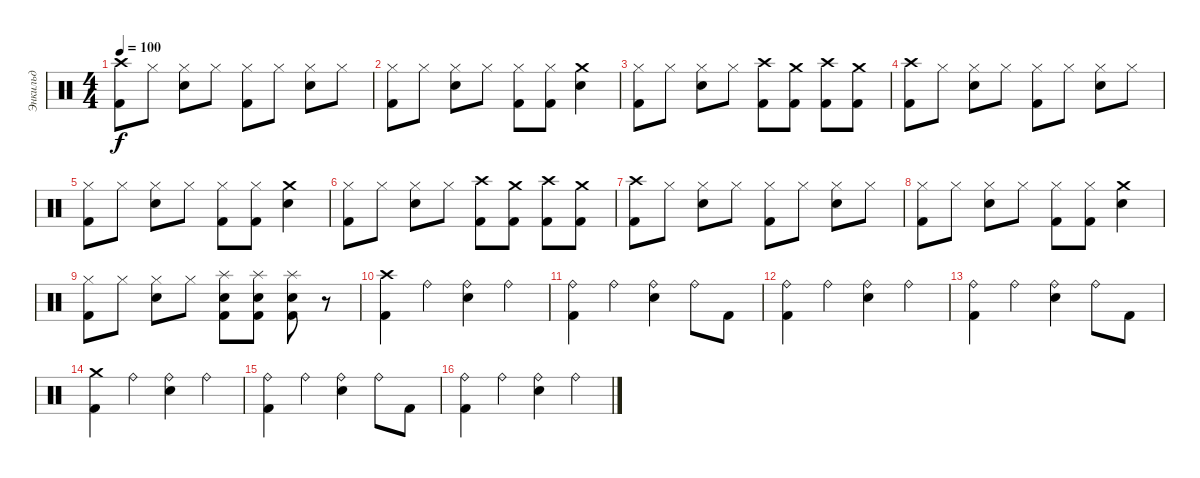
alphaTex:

\track ("Энкильд" "Энкильд") {instrument percussion}
\staff {score}
\articulation defaults
\ts (4 4)
\tempo 100
\clef neutral
\ks c
("Kick (hit) 2" "Crash high (hit)").8{dy f} "Hi-Hat (closed)".8 ("Snare (hit) 2" "Hi-Hat (closed)").8 "Hi-Hat (closed)".8 ("Kick (hit) 2" "Hi-Hat (closed)").8 "Hi-Hat (closed)".8 ("Snare (hit) 2" "Hi-Hat (closed)").8 "Hi-Hat (closed)".8 |
("Kick (hit) 2" "Hi-Hat (closed)").8 "Hi-Hat (closed)".8 ("Snare (hit) 2" "Hi-Hat (closed)").8 "Hi-Hat (closed)".8 ("Kick (hit) 2" "Hi-Hat (closed)").8 ("Kick (hit) 2" "Hi-Hat (closed)").8 ("Crash medium (hit)" "Snare (hit) 2").4 |
("Hi-Hat (closed)" "Kick (hit) 2").8 "Hi-Hat (closed)".8 ("Hi-Hat (closed)" "Snare (hit) 2").8 "Hi-Hat (closed)".8 ("Kick (hit) 2" "Crash high (hit)").8 ("Kick (hit) 2" "Crash medium (hit)").8 ("Kick (hit) 2" "Crash high (hit)").8 ("Kick (hit) 2" "Crash medium (hit)").8 |
("Kick (hit) 2" "Crash high (hit)").8 "Hi-Hat (closed)".8 ("Snare (hit) 2" "Hi-Hat (closed)").8 "Hi-Hat (closed)".8 ("Kick (hit) 2" "Hi-Hat (closed)").8 "Hi-Hat (closed)".8 ("Snare (hit) 2" "Hi-Hat (closed)").8 "Hi-Hat (closed)".8 |
("Kick (hit) 2" "Hi-Hat (closed)").8 "Hi-Hat (closed)".8 ("Snare (hit) 2" "Hi-Hat (closed)").8 "Hi-Hat (closed)".8 ("Kick (hit) 2" "Hi-Hat (closed)").8 ("Kick (hit) 2" "Hi-Hat (closed)").8 ("Crash medium (hit)" "Snare (hit) 2").4 |
("Hi-Hat (closed)" "Kick (hit) 2").8 "Hi-Hat (closed)".8 ("Hi-Hat (closed)" "Snare (hit) 2").8 "Hi-Hat (closed)".8 ("Kick (hit) 2" "Crash high (hit)").8 ("Kick (hit) 2" "Crash medium (hit)").8 ("Kick (hit) 2" "Crash high (hit)").8 ("Kick (hit) 2" "Crash medium (hit)").8 |
("Kick (hit) 2" "Crash high (hit)").8 "Hi-Hat (closed)".8 ("Snare (hit) 2" "Hi-Hat (closed)").8 "Hi-Hat (closed)".8 ("Kick (hit) 2" "Hi-Hat (closed)").8 "Hi-Hat (closed)".8 ("Snare (hit) 2" "Hi-Hat (closed)").8 "Hi-Hat (closed)".8 |
("Kick (hit) 2" "Hi-Hat (closed)").8 "Hi-Hat (closed)".8 ("Snare (hit) 2" "Hi-Hat (closed)").8 "Hi-Hat (closed)".8 ("Kick (hit) 2" "Hi-Hat (closed)").8 ("Kick (hit) 2" "Hi-Hat (closed)").8 ("Crash medium (hit)" "Snare (hit) 2").4 |
("Hi-Hat (closed)" "Kick (hit) 2").8 "Hi-Hat (closed)".8 ("Hi-Hat (closed)" "Snare (hit) 2").8 "Hi-Hat (closed)".8 ("Splash (hit)" "Kick (hit) 2" "Snare (hit) 2").8 ("Splash (hit)" "Kick (hit) 2" "Snare (hit) 2").8 ("Splash (hit)" "Kick (hit) 2" "Snare (hit) 2").8 r.8 |
("Kick (hit) 2" "Crash high (hit)").4 "Ride (bell)".4 ("Snare (hit) 2" "Ride (bell)").4 "Ride (bell)".4 |
("Ride (bell)" "Kick (hit) 2").4 "Ride (bell)".4 ("Ride (bell)" "Snare (hit) 2").4 "Ride (bell)".8 "Kick (hit) 2".8 |
("Ride (bell)" "Kick (hit) 2").4 "Ride (bell)".4 ("Snare (hit) 2" "Ride (bell)").4 "Ride (bell)".4 |
("Ride (bell)" "Kick (hit) 2").4 "Ride (bell)".4 ("Ride (bell)" "Snare (hit) 2").4 "Ride (bell)".8 "Kick (hit) 2".8 |
("Kick (hit) 2" "Crash medium (hit)").4 "Ride (bell)".4 ("Snare (hit) 2" "Ride (bell)").4 "Ride (bell)".4 |
("Ride (bell)" "Kick (hit) 2").4 "Ride (bell)".4 ("Ride (bell)" "Snare (hit) 2").4 "Ride (bell)".8 "Kick (hit) 2".8 |
("Ride (bell)" "Kick (hit) 2").4 "Ride (bell)".4 ("Snare (hit) 2" "Ride (bell)").4 "Ride (bell)".4
